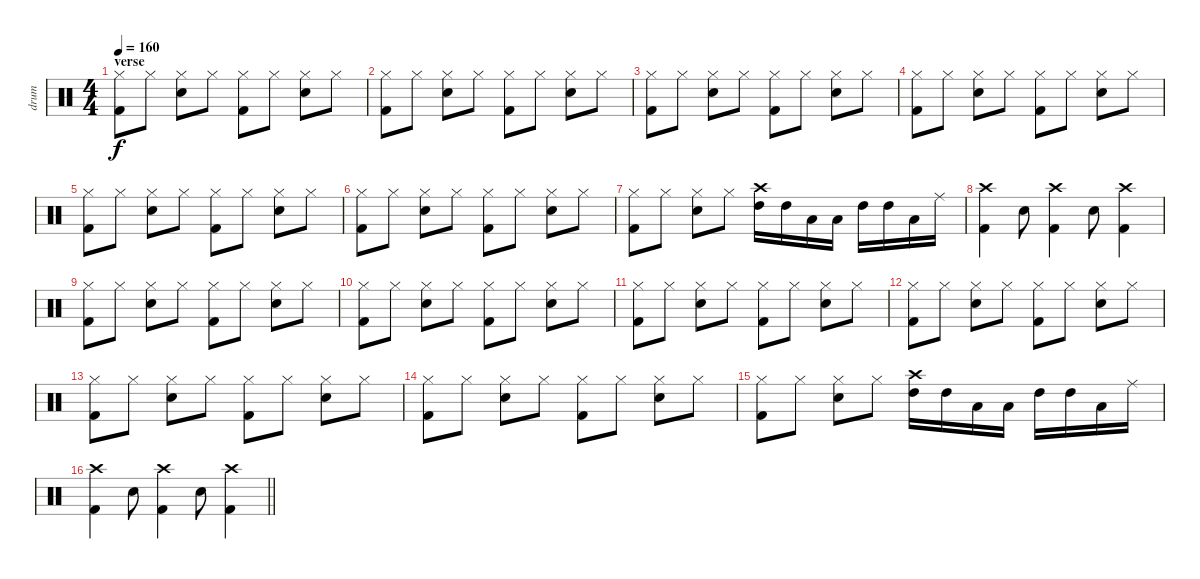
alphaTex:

\track ("drum" "drum") {instrument percussion}
\staff {score}
\articulation defaults
\ts (4 4)
\section ("" "verse")
\tempo 160
\clef neutral
\ks c
("Hi-Hat (closed)" "Kick (hit) 2").8{dy f} "Hi-Hat (closed)".8 ("Hi-Hat (closed)" "Snare (hit) 2").8 "Hi-Hat (closed)".8 ("Hi-Hat (closed)" "Kick (hit) 2").8 "Hi-Hat (closed)".8 ("Hi-Hat (closed)" "Snare (hit) 2").8 "Hi-Hat (closed)".8 |
("Hi-Hat (closed)" "Kick (hit) 2").8 "Hi-Hat (closed)".8 ("Hi-Hat (closed)" "Snare (hit) 2").8 "Hi-Hat (closed)".8 ("Hi-Hat (closed)" "Kick (hit) 2").8 "Hi-Hat (closed)".8 ("Hi-Hat (closed)" "Snare (hit) 2").8 "Hi-Hat (closed)".8 |
("Hi-Hat (closed)" "Kick (hit) 2").8 "Hi-Hat (closed)".8 ("Hi-Hat (closed)" "Snare (hit) 2").8 "Hi-Hat (closed)".8 ("Hi-Hat (closed)" "Kick (hit) 2").8 "Hi-Hat (closed)".8 ("Hi-Hat (closed)" "Snare (hit) 2").8 "Hi-Hat (closed)".8 |
("Hi-Hat (closed)" "Kick (hit) 2").8 "Hi-Hat (closed)".8 ("Hi-Hat (closed)" "Snare (hit) 2").8 "Hi-Hat (closed)".8 ("Hi-Hat (closed)" "Kick (hit) 2").8 "Hi-Hat (closed)".8 ("Hi-Hat (closed)" "Snare (hit) 2").8 "Hi-Hat (closed)".8 |
("Hi-Hat (closed)" "Kick (hit) 2").8 "Hi-Hat (closed)".8 ("Hi-Hat (closed)" "Snare (hit) 2").8 "Hi-Hat (closed)".8 ("Hi-Hat (closed)" "Kick (hit) 2").8 "Hi-Hat (closed)".8 ("Hi-Hat (closed)" "Snare (hit) 2").8 "Hi-Hat (closed)".8 |
("Hi-Hat (closed)" "Kick (hit) 2").8 "Hi-Hat (closed)".8 ("Hi-Hat (closed)" "Snare (hit) 2").8 "Hi-Hat (closed)".8 ("Hi-Hat (closed)" "Kick (hit) 2").8 "Hi-Hat (closed)".8 ("Hi-Hat (closed)" "Snare (hit) 2").8 "Hi-Hat (closed)".8 |
("Hi-Hat (closed)" "Kick (hit) 2").8 "Hi-Hat (closed)".8 ("Hi-Hat (closed)" "Snare (hit) 2").8 "Hi-Hat (closed)".8 ("Crash high (hit)" "High Tom (hit)").16 "High Tom (hit)".16 "Low Tom (hit)".16 "Low Floor Tom (hit)".16 "High Tom (hit)".16 "High Tom (hit)".16 "Low Tom (hit)".16 "Ride (middle)".16 |
("Crash high (hit)" "Kick (hit) 2").4 "Snare (hit) 2".8 ("Crash high (hit)" "Kick (hit) 2").4 "Snare (hit) 2".8 ("Crash high (hit)" "Kick (hit) 2").4 |
("Hi-Hat (closed)" "Kick (hit) 2").8 "Hi-Hat (closed)".8 ("Hi-Hat (closed)" "Snare (hit) 2").8 "Hi-Hat (closed)".8 ("Hi-Hat (closed)" "Kick (hit) 2").8 "Hi-Hat (closed)".8 ("Hi-Hat (closed)" "Snare (hit) 2").8 "Hi-Hat (closed)".8 |
("Hi-Hat (closed)" "Kick (hit) 2").8 "Hi-Hat (closed)".8 ("Hi-Hat (closed)" "Snare (hit) 2").8 "Hi-Hat (closed)".8 ("Hi-Hat (closed)" "Kick (hit) 2").8 "Hi-Hat (closed)".8 ("Hi-Hat (closed)" "Snare (hit) 2").8 "Hi-Hat (closed)".8 |
("Hi-Hat (closed)" "Kick (hit) 2").8 "Hi-Hat (closed)".8 ("Hi-Hat (closed)" "Snare (hit) 2").8 "Hi-Hat (closed)".8 ("Hi-Hat (closed)" "Kick (hit) 2").8 "Hi-Hat (closed)".8 ("Hi-Hat (closed)" "Snare (hit) 2").8 "Hi-Hat (closed)".8 |
("Hi-Hat (closed)" "Kick (hit) 2").8 "Hi-Hat (closed)".8 ("Hi-Hat (closed)" "Snare (hit) 2").8 "Hi-Hat (closed)".8 ("Hi-Hat (closed)" "Kick (hit) 2").8 "Hi-Hat (closed)".8 ("Hi-Hat (closed)" "Snare (hit) 2").8 "Hi-Hat (closed)".8 |
("Hi-Hat (closed)" "Kick (hit) 2").8 "Hi-Hat (closed)".8 ("Hi-Hat (closed)" "Snare (hit) 2").8 "Hi-Hat (closed)".8 ("Hi-Hat (closed)" "Kick (hit) 2").8 "Hi-Hat (closed)".8 ("Hi-Hat (closed)" "Snare (hit) 2").8 "Hi-Hat (closed)".8 |
("Hi-Hat (closed)" "Kick (hit) 2").8 "Hi-Hat (closed)".8 ("Hi-Hat (closed)" "Snare (hit) 2").8 "Hi-Hat (closed)".8 ("Hi-Hat (closed)" "Kick (hit) 2").8 "Hi-Hat (closed)".8 ("Hi-Hat (closed)" "Snare (hit) 2").8 "Hi-Hat (closed)".8 |
("Hi-Hat (closed)" "Kick (hit) 2").8 "Hi-Hat (closed)".8 ("Hi-Hat (closed)" "Snare (hit) 2").8 "Hi-Hat (closed)".8 ("Crash high (hit)" "High Tom (hit)").16 "High Tom (hit)".16 "Low Tom (hit)".16 "Low Floor Tom (hit)".16 "High Tom (hit)".16 "High Tom (hit)".16 "Low Tom (hit)".16 "Ride (middle)".16 |
\barLineRight lightlight
("Crash high (hit)" "Kick (hit) 2").4 "Snare (hit) 2".8 ("Crash high (hit)" "Kick (hit) 2").4 "Snare (hit) 2".8 ("Crash high (hit)" "Kick (hit) 2").4
